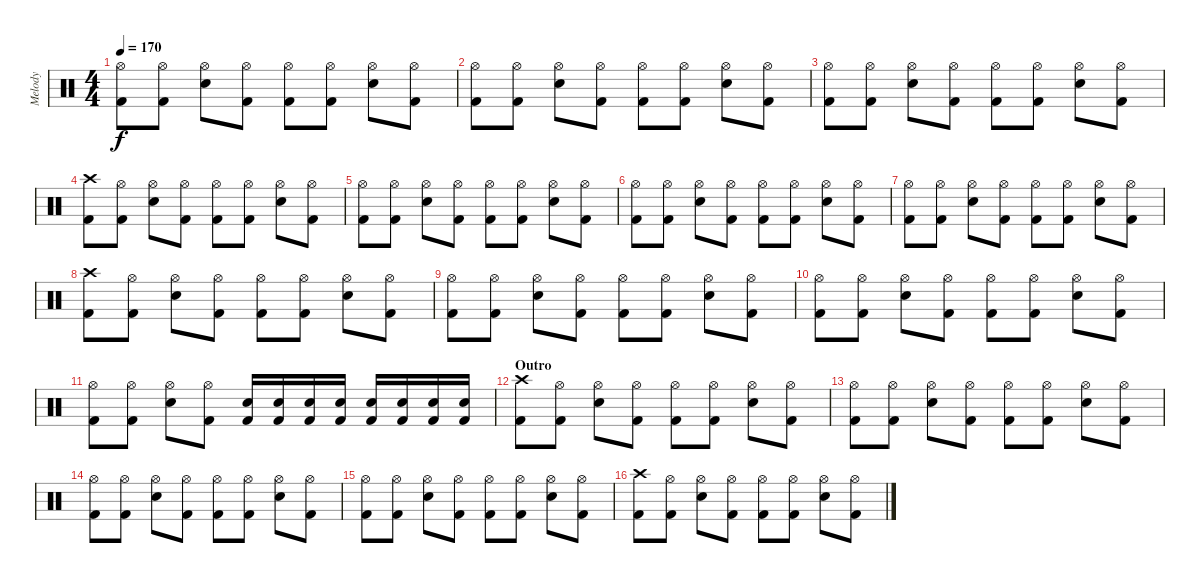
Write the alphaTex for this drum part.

\track ("Melody" "Melody") {instrument percussion}
\staff {score}
\articulation defaults
\ts (4 4)
\tempo 170
\clef neutral
\ks c
("Hi-Hat (open)" "Kick (hit) 2").8{dy f} ("Hi-Hat (open)" "Kick (hit) 2").8 ("Hi-Hat (open)" "Snare (hit) 2").8 ("Hi-Hat (open)" "Kick (hit) 2").8 ("Hi-Hat (open)" "Kick (hit) 2").8 ("Hi-Hat (open)" "Kick (hit) 2").8 ("Hi-Hat (open)" "Snare (hit) 2").8 ("Hi-Hat (open)" "Kick (hit) 2").8 |
("Hi-Hat (open)" "Kick (hit) 2").8 ("Hi-Hat (open)" "Kick (hit) 2").8 ("Hi-Hat (open)" "Snare (hit) 2").8 ("Hi-Hat (open)" "Kick (hit) 2").8 ("Hi-Hat (open)" "Kick (hit) 2").8 ("Hi-Hat (open)" "Kick (hit) 2").8 ("Hi-Hat (open)" "Snare (hit) 2").8 ("Hi-Hat (open)" "Kick (hit) 2").8 |
("Hi-Hat (open)" "Kick (hit) 2").8 ("Hi-Hat (open)" "Kick (hit) 2").8 ("Hi-Hat (open)" "Snare (hit) 2").8 ("Hi-Hat (open)" "Kick (hit) 2").8 ("Hi-Hat (open)" "Kick (hit) 2").8 ("Hi-Hat (open)" "Kick (hit) 2").8 ("Hi-Hat (open)" "Snare (hit) 2").8 ("Hi-Hat (open)" "Kick (hit) 2").8 |
("Crash high (hit)" "Kick (hit) 2").8 ("Hi-Hat (open)" "Kick (hit) 2").8 ("Hi-Hat (open)" "Snare (hit) 2").8 ("Hi-Hat (open)" "Kick (hit) 2").8 ("Hi-Hat (open)" "Kick (hit) 2").8 ("Hi-Hat (open)" "Kick (hit) 2").8 ("Hi-Hat (open)" "Snare (hit) 2").8 ("Hi-Hat (open)" "Kick (hit) 2").8 |
("Hi-Hat (open)" "Kick (hit) 2").8 ("Hi-Hat (open)" "Kick (hit) 2").8 ("Hi-Hat (open)" "Snare (hit) 2").8 ("Hi-Hat (open)" "Kick (hit) 2").8 ("Hi-Hat (open)" "Kick (hit) 2").8 ("Hi-Hat (open)" "Kick (hit) 2").8 ("Hi-Hat (open)" "Snare (hit) 2").8 ("Hi-Hat (open)" "Kick (hit) 2").8 |
("Hi-Hat (open)" "Kick (hit) 2").8 ("Hi-Hat (open)" "Kick (hit) 2").8 ("Hi-Hat (open)" "Snare (hit) 2").8 ("Hi-Hat (open)" "Kick (hit) 2").8 ("Hi-Hat (open)" "Kick (hit) 2").8 ("Hi-Hat (open)" "Kick (hit) 2").8 ("Hi-Hat (open)" "Snare (hit) 2").8 ("Hi-Hat (open)" "Kick (hit) 2").8 |
("Hi-Hat (open)" "Kick (hit) 2").8 ("Hi-Hat (open)" "Kick (hit) 2").8 ("Hi-Hat (open)" "Snare (hit) 2").8 ("Hi-Hat (open)" "Kick (hit) 2").8 ("Hi-Hat (open)" "Kick (hit) 2").8 ("Hi-Hat (open)" "Kick (hit) 2").8 ("Hi-Hat (open)" "Snare (hit) 2").8 ("Hi-Hat (open)" "Kick (hit) 2").8 |
("Crash high (hit)" "Kick (hit) 2").8 ("Hi-Hat (open)" "Kick (hit) 2").8 ("Hi-Hat (open)" "Snare (hit) 2").8 ("Hi-Hat (open)" "Kick (hit) 2").8 ("Hi-Hat (open)" "Kick (hit) 2").8 ("Hi-Hat (open)" "Kick (hit) 2").8 ("Hi-Hat (open)" "Snare (hit) 2").8 ("Hi-Hat (open)" "Kick (hit) 2").8 |
("Hi-Hat (open)" "Kick (hit) 2").8 ("Hi-Hat (open)" "Kick (hit) 2").8 ("Hi-Hat (open)" "Snare (hit) 2").8 ("Hi-Hat (open)" "Kick (hit) 2").8 ("Hi-Hat (open)" "Kick (hit) 2").8 ("Hi-Hat (open)" "Kick (hit) 2").8 ("Hi-Hat (open)" "Snare (hit) 2").8 ("Hi-Hat (open)" "Kick (hit) 2").8 |
("Hi-Hat (open)" "Kick (hit) 2").8 ("Hi-Hat (open)" "Kick (hit) 2").8 ("Hi-Hat (open)" "Snare (hit) 2").8 ("Hi-Hat (open)" "Kick (hit) 2").8 ("Hi-Hat (open)" "Kick (hit) 2").8 ("Hi-Hat (open)" "Kick (hit) 2").8 ("Hi-Hat (open)" "Snare (hit) 2").8 ("Hi-Hat (open)" "Kick (hit) 2").8 |
("Hi-Hat (open)" "Kick (hit) 2").8 ("Hi-Hat (open)" "Kick (hit) 2").8 ("Hi-Hat (open)" "Snare (hit) 2").8 ("Hi-Hat (open)" "Kick (hit) 2").8 ("Snare (hit) 2" "Kick (hit) 2").16 ("Snare (hit) 2" "Kick (hit) 2").16 ("Snare (hit) 2" "Kick (hit) 2").16 ("Snare (hit) 2" "Kick (hit) 2").16 ("Snare (hit) 2" "Kick (hit) 2").16 ("Snare (hit) 2" "Kick (hit) 2").16 ("Snare (hit) 2" "Kick (hit) 2").16 ("Snare (hit) 2" "Kick (hit) 2").16 |
\section ("" "Outro")
("Crash high (hit)" "Kick (hit) 2").8 ("Hi-Hat (open)" "Kick (hit) 2").8 ("Hi-Hat (open)" "Snare (hit) 2").8 ("Hi-Hat (open)" "Kick (hit) 2").8 ("Hi-Hat (open)" "Kick (hit) 2").8 ("Hi-Hat (open)" "Kick (hit) 2").8 ("Hi-Hat (open)" "Snare (hit) 2").8 ("Hi-Hat (open)" "Kick (hit) 2").8 |
("Hi-Hat (open)" "Kick (hit) 2").8 ("Hi-Hat (open)" "Kick (hit) 2").8 ("Hi-Hat (open)" "Snare (hit) 2").8 ("Hi-Hat (open)" "Kick (hit) 2").8 ("Hi-Hat (open)" "Kick (hit) 2").8 ("Hi-Hat (open)" "Kick (hit) 2").8 ("Hi-Hat (open)" "Snare (hit) 2").8 ("Hi-Hat (open)" "Kick (hit) 2").8 |
("Hi-Hat (open)" "Kick (hit) 2").8 ("Hi-Hat (open)" "Kick (hit) 2").8 ("Hi-Hat (open)" "Snare (hit) 2").8 ("Hi-Hat (open)" "Kick (hit) 2").8 ("Hi-Hat (open)" "Kick (hit) 2").8 ("Hi-Hat (open)" "Kick (hit) 2").8 ("Hi-Hat (open)" "Snare (hit) 2").8 ("Hi-Hat (open)" "Kick (hit) 2").8 |
("Hi-Hat (open)" "Kick (hit) 2").8 ("Hi-Hat (open)" "Kick (hit) 2").8 ("Hi-Hat (open)" "Snare (hit) 2").8 ("Hi-Hat (open)" "Kick (hit) 2").8 ("Hi-Hat (open)" "Kick (hit) 2").8 ("Hi-Hat (open)" "Kick (hit) 2").8 ("Hi-Hat (open)" "Snare (hit) 2").8 ("Hi-Hat (open)" "Kick (hit) 2").8 |
("Crash high (hit)" "Kick (hit) 2").8 ("Hi-Hat (open)" "Kick (hit) 2").8 ("Hi-Hat (open)" "Snare (hit) 2").8 ("Hi-Hat (open)" "Kick (hit) 2").8 ("Hi-Hat (open)" "Kick (hit) 2").8 ("Hi-Hat (open)" "Kick (hit) 2").8 ("Hi-Hat (open)" "Snare (hit) 2").8 ("Hi-Hat (open)" "Kick (hit) 2").8
